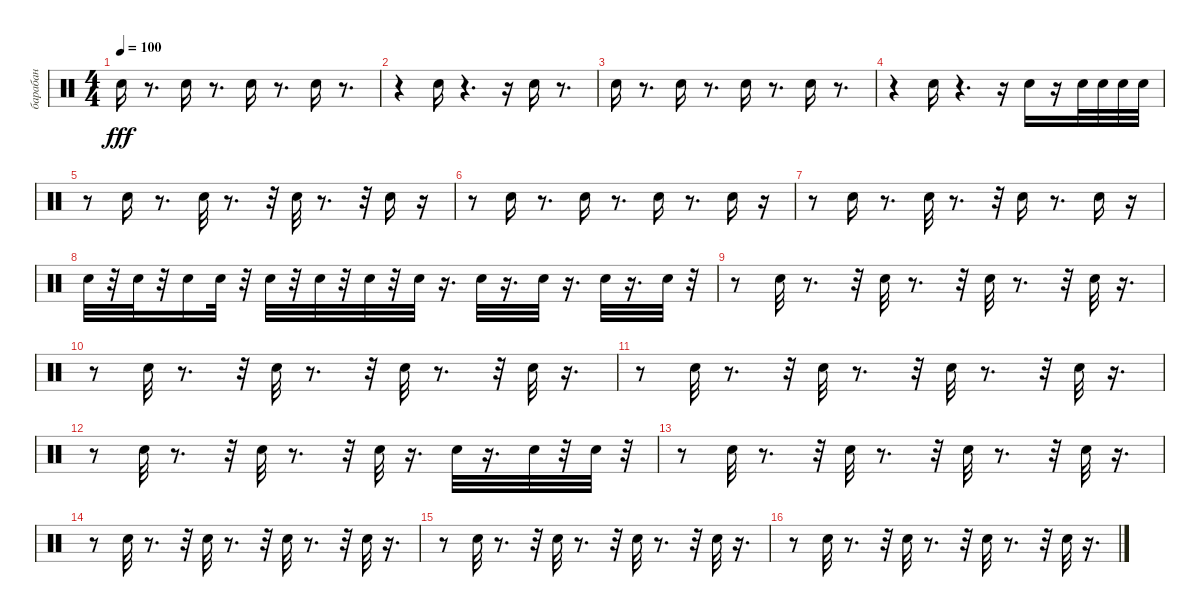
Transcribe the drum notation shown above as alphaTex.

\track ("барабан" "барабан") {instrument percussion}
\staff {score}
\articulation defaults
\ts (4 4)
\tempo 100
\clef neutral
\ks c "Snare (hit) 2".16{dy fff}
r.8{d} "Snare (hit) 2".16 r.8{d} "Snare (hit) 2".16 r.8{d} "Snare (hit) 2".16 r.8{d} |
r.4 "Snare (hit) 2".16 r.4{d} r.16 "Snare (hit) 2".16 r.8{d} |
"Snare (hit) 2".16 r.8{d} "Snare (hit) 2".16 r.8{d} "Snare (hit) 2".16 r.8{d} "Snare (hit) 2".16 r.8{d} |
r.4 "Snare (hit) 2".16 r.4{d} r.16 "Snare (hit) 2".16 r.16 "Snare (hit) 2".32 "Snare (hit) 2".32 "Snare (hit) 2".32 "Snare (hit) 2".32 |
r.8 "Snare (hit) 2".16 r.8{d} "Snare (hit) 2".32 r.8{d} r.32 "Snare (hit) 2".32 r.8{d} r.32 "Snare (hit) 2".16 r.16 |
r.8 "Snare (hit) 2".16 r.8{d} "Snare (hit) 2".16 r.8{d} "Snare (hit) 2".16 r.8{d} "Snare (hit) 2".16 r.16 |
r.8 "Snare (hit) 2".16 r.8{d} "Snare (hit) 2".32 r.8{d} r.32 "Snare (hit) 2".16 r.8{d} "Snare (hit) 2".16 r.16 |
"Snare (hit) 2".32 r.32 "Snare (hit) 2".32 r.32 "Snare (hit) 2".16 "Snare (hit) 2".32 r.32 "Snare (hit) 2".32 r.32 "Snare (hit) 2".32 r.32 "Snare (hit) 2".32 r.32 "Snare (hit) 2".32 r.16{d} "Snare (hit) 2".32 r.16{d} "Snare (hit) 2".32 r.16{d} "Snare (hit) 2".32 r.16{d} "Snare (hit) 2".32 r.32 |
r.8 "Snare (hit) 2".32 r.8{d} r.32 "Snare (hit) 2".32 r.8{d} r.32 "Snare (hit) 2".32 r.8{d} r.32 "Snare (hit) 2".32 r.16{d} |
r.8 "Snare (hit) 2".32 r.8{d} r.32 "Snare (hit) 2".32 r.8{d} r.32 "Snare (hit) 2".32 r.8{d} r.32 "Snare (hit) 2".32 r.16{d} |
r.8 "Snare (hit) 2".32 r.8{d} r.32 "Snare (hit) 2".32 r.8{d} r.32 "Snare (hit) 2".32 r.8{d} r.32 "Snare (hit) 2".32 r.16{d} |
r.8 "Snare (hit) 2".32 r.8{d} r.32 "Snare (hit) 2".32 r.8{d} r.32 "Snare (hit) 2".32 r.16{d} "Snare (hit) 2".32 r.16{d} "Snare (hit) 2".32 r.32 "Snare (hit) 2".32 r.32 |
r.8 "Snare (hit) 2".32 r.8{d} r.32 "Snare (hit) 2".32 r.8{d} r.32 "Snare (hit) 2".32 r.8{d} r.32 "Snare (hit) 2".32 r.16{d} |
r.8 "Snare (hit) 2".32 r.8{d} r.32 "Snare (hit) 2".32 r.8{d} r.32 "Snare (hit) 2".32 r.8{d} r.32 "Snare (hit) 2".32 r.16{d} |
r.8 "Snare (hit) 2".32 r.8{d} r.32 "Snare (hit) 2".32 r.8{d} r.32 "Snare (hit) 2".32 r.8{d} r.32 "Snare (hit) 2".32 r.16{d} |
r.8 "Snare (hit) 2".32 r.8{d} r.32 "Snare (hit) 2".32 r.8{d} r.32 "Snare (hit) 2".32 r.8{d} r.32 "Snare (hit) 2".32 r.16{d}
